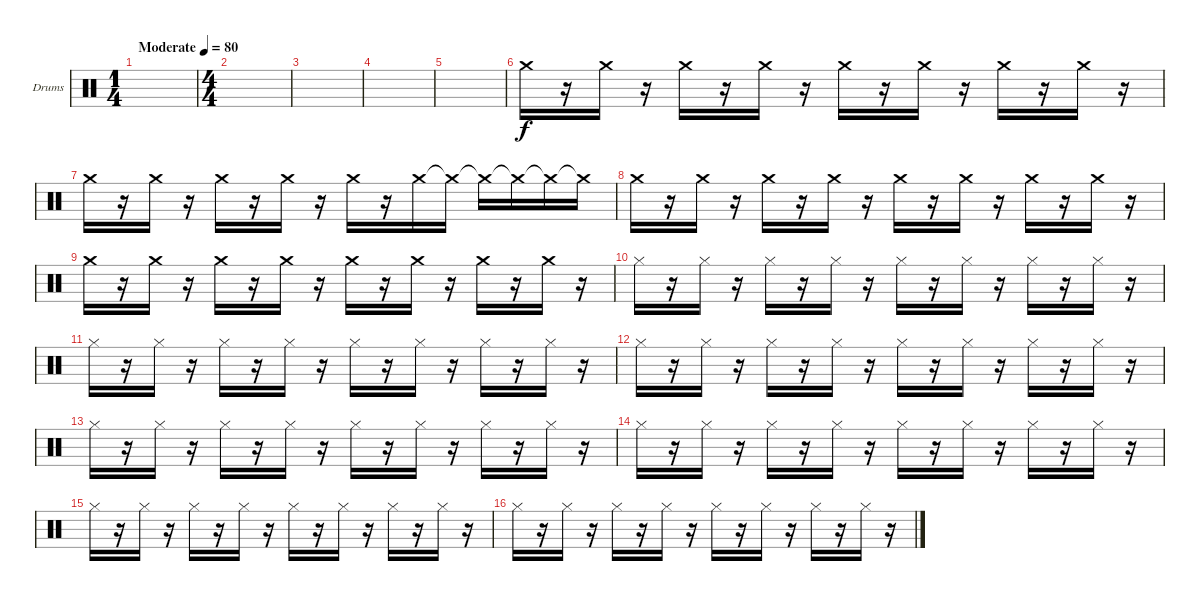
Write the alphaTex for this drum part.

\bracketExtendMode groupsimilarinstruments
\firstSystemTrackNameOrientation horizontal
\otherSystemsTrackNameOrientation horizontal
\track ("Drumkit" "Drums") {instrument percussion}
\staff {score}
\articulation defaults
\ts (1 4)
\beaming (8 2)
\tempo (80 "Moderate")
\clef neutral
\scale
0.391473
\ks c
|
\ts (4 4)
\beaming (8 2 2 2 2)
\scale
0.391473 |
\scale
0.217054 |
\scale
0.333333 |
\scale
0.333333 |
\scale
0.333333 "Crash medium (hit)".16 r.16 "Crash medium (hit)".16 r.16 "Crash medium (hit)".16 r.16 "Crash medium (hit)".16 r.16 "Crash medium (hit)".16 r.16 "Crash medium (hit)".16 r.16 "Crash medium (hit)".16 r.16 "Crash medium (hit)".16 r.16 |
\scale
0.333333 "Crash medium (hit)".16 r.16 "Crash medium (hit)".16 r.16 "Crash medium (hit)".16 r.16 "Crash medium (hit)".16 r.16 "Crash medium (hit)".16 r.16 "Crash medium (hit)".16 "Crash medium (hit)"{t}.16 "Crash medium (hit)"{t}.16 "Crash medium (hit)"{t}.16 "Crash medium (hit)"{t}.16 "Crash medium (hit)"{t}.16 |
\scale
0.333333 "Crash medium (hit)".16 r.16 "Crash medium (hit)".16 r.16 "Crash medium (hit)".16 r.16 "Crash medium (hit)".16 r.16 "Crash medium (hit)".16 r.16 "Crash medium (hit)".16 r.16 "Crash medium (hit)".16 r.16 "Crash medium (hit)".16 r.16 |
\scale
0.333333 "Crash medium (hit)".16 r.16 "Crash medium (hit)".16 r.16 "Crash medium (hit)".16 r.16 "Crash medium (hit)".16 r.16 "Crash medium (hit)".16 r.16 "Crash medium (hit)".16 r.16 "Crash medium (hit)".16 r.16 "Crash medium (hit)".16 r.16 |
\scale
0.333333 "Hi-Hat (closed)".16 r.16 "Hi-Hat (closed)".16 r.16 "Hi-Hat (closed)".16 r.16 "Hi-Hat (closed)".16 r.16 "Hi-Hat (closed)".16 r.16 "Hi-Hat (closed)".16 r.16 "Hi-Hat (closed)".16 r.16 "Hi-Hat (closed)".16 r.16 |
\scale
0.333333 "Hi-Hat (closed)".16 r.16 "Hi-Hat (closed)".16 r.16 "Hi-Hat (closed)".16 r.16 "Hi-Hat (closed)".16 r.16 "Hi-Hat (closed)".16 r.16 "Hi-Hat (closed)".16 r.16 "Hi-Hat (closed)".16 r.16 "Hi-Hat (closed)".16 r.16 |
\scale
0.333333 "Hi-Hat (closed)".16 r.16 "Hi-Hat (closed)".16 r.16 "Hi-Hat (closed)".16 r.16 "Hi-Hat (closed)".16 r.16 "Hi-Hat (closed)".16 r.16 "Hi-Hat (closed)".16 r.16 "Hi-Hat (closed)".16 r.16 "Hi-Hat (closed)".16 r.16 |
\scale
0.333333 "Hi-Hat (closed)".16 r.16 "Hi-Hat (closed)".16 r.16 "Hi-Hat (closed)".16 r.16 "Hi-Hat (closed)".16 r.16 "Hi-Hat (closed)".16 r.16 "Hi-Hat (closed)".16 r.16 "Hi-Hat (closed)".16 r.16 "Hi-Hat (closed)".16 r.16 |
\scale
0.333333 "Hi-Hat (closed)".16 r.16 "Hi-Hat (closed)".16 r.16 "Hi-Hat (closed)".16 r.16 "Hi-Hat (closed)".16 r.16 "Hi-Hat (closed)".16 r.16 "Hi-Hat (closed)".16 r.16 "Hi-Hat (closed)".16 r.16 "Hi-Hat (closed)".16 r.16 |
\scale
0.333333 "Hi-Hat (closed)".16 r.16 "Hi-Hat (closed)".16 r.16 "Hi-Hat (closed)".16 r.16 "Hi-Hat (closed)".16 r.16 "Hi-Hat (closed)".16 r.16 "Hi-Hat (closed)".16 r.16 "Hi-Hat (closed)".16 r.16 "Hi-Hat (closed)".16 r.16 |
\scale
0.333333 "Hi-Hat (closed)".16 r.16 "Hi-Hat (closed)".16 r.16 "Hi-Hat (closed)".16 r.16 "Hi-Hat (closed)".16 r.16 "Hi-Hat (closed)".16 r.16 "Hi-Hat (closed)".16 r.16 "Hi-Hat (closed)".16 r.16 "Hi-Hat (closed)".16 r.16
